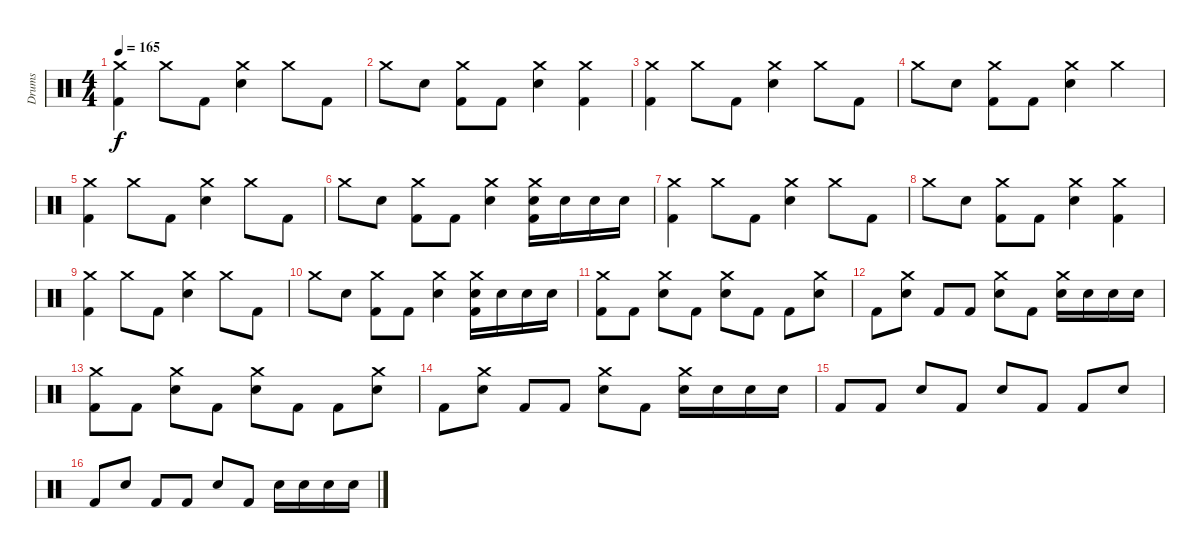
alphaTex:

\track ("Drums" "Drums") {instrument percussion}
\staff {score}
\articulation defaults
\ts (4 4)
\tempo 165
\clef neutral
\ks c
("Crash medium (hit)" "Kick (hit) 2").4{dy f} "Crash medium (hit)".8 "Kick (hit) 2".8 ("Crash medium (hit)" "Snare (hit) 2").4 "Crash medium (hit)".8 "Kick (hit) 2".8 |
"Crash medium (hit)".8 "Snare (hit) 2".8 ("Crash medium (hit)" "Kick (hit) 2").8 "Kick (hit) 2".8 ("Crash medium (hit)" "Snare (hit) 2").4 ("Crash medium (hit)" "Kick (hit) 2").4 |
("Crash medium (hit)" "Kick (hit) 2").4 "Crash medium (hit)".8 "Kick (hit) 2".8 ("Crash medium (hit)" "Snare (hit) 2").4 "Crash medium (hit)".8 "Kick (hit) 2".8 |
"Crash medium (hit)".8 "Snare (hit) 2".8 ("Crash medium (hit)" "Kick (hit) 2").8 "Kick (hit) 2".8 ("Crash medium (hit)" "Snare (hit) 2").4 "Crash medium (hit)".4 |
("Crash medium (hit)" "Kick (hit) 2").4 "Crash medium (hit)".8 "Kick (hit) 2".8 ("Crash medium (hit)" "Snare (hit) 2").4 "Crash medium (hit)".8 "Kick (hit) 2".8 |
"Crash medium (hit)".8 "Snare (hit) 2".8 ("Crash medium (hit)" "Kick (hit) 2").8 "Kick (hit) 2".8 ("Crash medium (hit)" "Snare (hit) 2").4 ("Crash medium (hit)" "Snare (hit) 2" "Kick (hit) 2").16 "Snare (hit) 2".16 "Snare (hit) 2".16 "Snare (hit) 2".16 |
("Crash medium (hit)" "Kick (hit) 2").4 "Crash medium (hit)".8 "Kick (hit) 2".8 ("Crash medium (hit)" "Snare (hit) 2").4 "Crash medium (hit)".8 "Kick (hit) 2".8 |
"Crash medium (hit)".8 "Snare (hit) 2".8 ("Crash medium (hit)" "Kick (hit) 2").8 "Kick (hit) 2".8 ("Crash medium (hit)" "Snare (hit) 2").4 ("Crash medium (hit)" "Kick (hit) 2").4 |
("Crash medium (hit)" "Kick (hit) 2").4 "Crash medium (hit)".8 "Kick (hit) 2".8 ("Crash medium (hit)" "Snare (hit) 2").4 "Crash medium (hit)".8 "Kick (hit) 2".8 |
"Crash medium (hit)".8 "Snare (hit) 2".8 ("Crash medium (hit)" "Kick (hit) 2").8 "Kick (hit) 2".8 ("Crash medium (hit)" "Snare (hit) 2").4 ("Crash medium (hit)" "Snare (hit) 2" "Kick (hit) 2").16 "Snare (hit) 2".16 "Snare (hit) 2".16 "Snare (hit) 2".16 |
("Crash medium (hit)" "Kick (hit) 2").8 "Kick (hit) 2".8 ("Crash medium (hit)" "Snare (hit) 2").8 "Kick (hit) 2".8 ("Crash medium (hit)" "Snare (hit) 2").8 "Kick (hit) 2".8 "Kick (hit) 2".8 ("Crash medium (hit)" "Snare (hit) 2").8 |
"Kick (hit) 2".8 ("Crash medium (hit)" "Snare (hit) 2").8 "Kick (hit) 2".8 "Kick (hit) 2".8 ("Crash medium (hit)" "Snare (hit) 2").8 "Kick (hit) 2".8 ("Crash medium (hit)" "Snare (hit) 2").16 "Snare (hit) 2".16 "Snare (hit) 2".16 "Snare (hit) 2".16 |
("Crash medium (hit)" "Kick (hit) 2").8 "Kick (hit) 2".8 ("Crash medium (hit)" "Snare (hit) 2").8 "Kick (hit) 2".8 ("Crash medium (hit)" "Snare (hit) 2").8 "Kick (hit) 2".8 "Kick (hit) 2".8 ("Crash medium (hit)" "Snare (hit) 2").8 |
"Kick (hit) 2".8 ("Crash medium (hit)" "Snare (hit) 2").8 "Kick (hit) 2".8 "Kick (hit) 2".8 ("Crash medium (hit)" "Snare (hit) 2").8 "Kick (hit) 2".8 ("Crash medium (hit)" "Snare (hit) 2").16 "Snare (hit) 2".16 "Snare (hit) 2".16 "Snare (hit) 2".16 |
"Kick (hit) 2".8 "Kick (hit) 2".8 "Snare (hit) 2".8 "Kick (hit) 2".8 "Snare (hit) 2".8 "Kick (hit) 2".8 "Kick (hit) 2".8 "Snare (hit) 2".8 |
"Kick (hit) 2".8 "Snare (hit) 2".8 "Kick (hit) 2".8 "Kick (hit) 2".8 "Snare (hit) 2".8 "Kick (hit) 2".8 "Snare (hit) 2".16 "Snare (hit) 2".16 "Snare (hit) 2".16 "Snare (hit) 2".16
